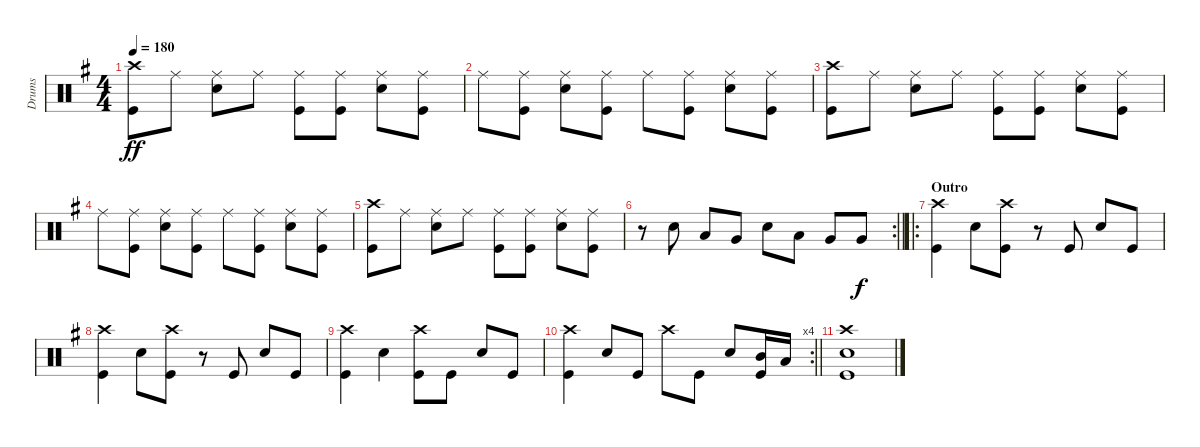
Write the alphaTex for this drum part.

\track ("Drums" "Drums") {instrument percussion}
\staff {score}
\articulation defaults
\ts (4 4)
\tempo 180
\clef neutral
\ks g
("Crash high (hit)" "Kick (hit)").8{dy ff} "Ride (middle)".8 ("Ride (middle)" "Electric Snare (hit)").8 "Ride (middle)".8 ("Ride (middle)" "Kick (hit)").8 ("Ride (middle)" "Kick (hit)").8 ("Ride (middle)" "Electric Snare (hit)").8 ("Ride (middle)" "Kick (hit)").8 |
"Ride (middle)".8 ("Ride (middle)" "Kick (hit)").8 ("Ride (middle)" "Electric Snare (hit)").8 ("Ride (middle)" "Kick (hit)").8 "Ride (middle)".8 ("Ride (middle)" "Kick (hit)").8 ("Ride (middle)" "Electric Snare (hit)").8 ("Ride (middle)" "Kick (hit)").8 |
("Crash high (hit)" "Kick (hit)").8 "Ride (middle)".8 ("Ride (middle)" "Electric Snare (hit)").8 "Ride (middle)".8 ("Ride (middle)" "Kick (hit)").8 ("Ride (middle)" "Kick (hit)").8 ("Ride (middle)" "Electric Snare (hit)").8 ("Ride (middle)" "Kick (hit)").8 |
"Ride (middle)".8 ("Ride (middle)" "Kick (hit)").8 ("Ride (middle)" "Electric Snare (hit)").8 ("Ride (middle)" "Kick (hit)").8 "Ride (middle)".8 ("Ride (middle)" "Kick (hit)").8 ("Ride (middle)" "Electric Snare (hit)").8 ("Ride (middle)" "Kick (hit)").8 |
("Crash high (hit)" "Kick (hit)").8 "Ride (middle)".8 ("Ride (middle)" "Electric Snare (hit)").8 "Ride (middle)".8 ("Ride (middle)" "Kick (hit)").8 ("Ride (middle)" "Kick (hit)").8 ("Ride (middle)" "Electric Snare (hit)").8 ("Ride (middle)" "Kick (hit)").8 |
\rc 2
\barLineRight lightlight
r.8 "Electric Snare (hit)".8 "Low Tom (hit)".8 "Very Low Tom (hit)".8 "Electric Snare (hit)".8 "Low Tom (hit)".8 "Very Low Tom (hit)".8 "Very Low Tom (hit)".8{dy f} |
\ro
\section ("" "Outro")
("Crash high (hit)" "Kick (hit)").4 "Electric Snare (hit)".8 ("Crash high (hit)" "Kick (hit)").8 r.8 "Kick (hit)".8 "Electric Snare (hit)".8 "Kick (hit)".8 |
("Crash high (hit)" "Kick (hit)").4 "Electric Snare (hit)".8 ("Crash high (hit)" "Kick (hit)").8 r.8 "Kick (hit)".8 "Electric Snare (hit)".8 "Kick (hit)".8 |
("Crash high (hit)" "Kick (hit)").4 "Electric Snare (hit)".4 ("Crash high (hit)" "Kick (hit)").8 "Kick (hit)".8 "Electric Snare (hit)".8 "Kick (hit)".8 |
\rc 4
\barLineRight lightlight
("Crash high (hit)" "Kick (hit)").4 "Electric Snare (hit)".8 "Kick (hit)".8 "Crash high (hit)".8 "Kick (hit)".8 "Electric Snare (hit)".8 ("Kick (hit)" "Mid Tom (hit)").16 "Low Tom (hit)".16 |
("Crash high (hit)" "Kick (hit)" "Electric Snare (hit)").1
